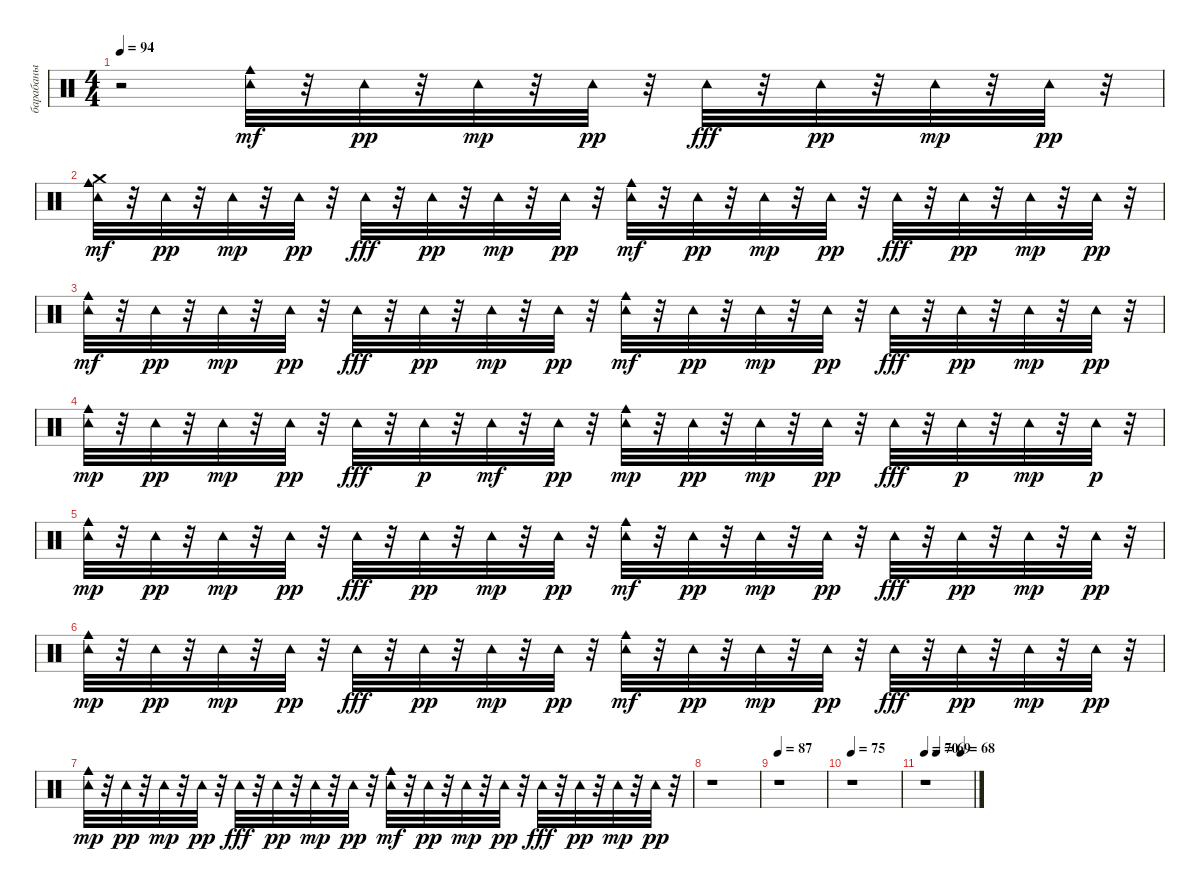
\track ("барабаны" "барабаны") {instrument percussion}
\staff {score}
\articulation defaults
\ts (4 4)
\tempo 94
\clef neutral
\ks c
r.2{dy pp} ("Tambourine (hit)" "Cowbell medium (hit)").32{dy mf} r.32 "Tambourine (hit)".32{dy pp} r.32 "Tambourine (hit)".32{dy mp} r.32 "Tambourine (hit)".32{dy pp} r.32 "Tambourine (hit)".32{dy fff} r.32 "Tambourine (hit)".32{dy pp} r.32 "Tambourine (hit)".32{dy mp} r.32 "Tambourine (hit)".32{dy pp} r.32 |
("Crash medium (hit)" "Tambourine (hit)" "Cowbell medium (hit)").32{dy mf} r.32 "Tambourine (hit)".32{dy pp} r.32 "Tambourine (hit)".32{dy mp} r.32 "Tambourine (hit)".32{dy pp} r.32 "Tambourine (hit)".32{dy fff} r.32 "Tambourine (hit)".32{dy pp} r.32 "Tambourine (hit)".32{dy mp} r.32 "Tambourine (hit)".32{dy pp} r.32 ("Tambourine (hit)" "Cowbell medium (hit)").32{dy mf} r.32 "Tambourine (hit)".32{dy pp} r.32 "Tambourine (hit)".32{dy mp} r.32 "Tambourine (hit)".32{dy pp} r.32 "Tambourine (hit)".32{dy fff} r.32 "Tambourine (hit)".32{dy pp} r.32 "Tambourine (hit)".32{dy mp} r.32 "Tambourine (hit)".32{dy pp} r.32 |
("Tambourine (hit)" "Cowbell medium (hit)").32{dy mf} r.32 "Tambourine (hit)".32{dy pp} r.32 "Tambourine (hit)".32{dy mp} r.32 "Tambourine (hit)".32{dy pp} r.32 "Tambourine (hit)".32{dy fff} r.32 "Tambourine (hit)".32{dy pp} r.32 "Tambourine (hit)".32{dy mp} r.32 "Tambourine (hit)".32{dy pp} r.32 ("Tambourine (hit)" "Cowbell medium (hit)").32{dy mf} r.32 "Tambourine (hit)".32{dy pp} r.32 "Tambourine (hit)".32{dy mp} r.32 "Tambourine (hit)".32{dy pp} r.32 "Tambourine (hit)".32{dy fff} r.32 "Tambourine (hit)".32{dy pp} r.32 "Tambourine (hit)".32{dy mp} r.32 "Tambourine (hit)".32{dy pp} r.32 |
("Cowbell medium (hit)" "Tambourine (hit)").32{dy mp} r.32 "Tambourine (hit)".32{dy pp} r.32 "Tambourine (hit)".32{dy mp} r.32 "Tambourine (hit)".32{dy pp} r.32 "Tambourine (hit)".32{dy fff} r.32 "Tambourine (hit)".32{dy p} r.32 "Tambourine (hit)".32{dy mf} r.32 "Tambourine (hit)".32{dy pp} r.32 ("Tambourine (hit)" "Cowbell medium (hit)").32{dy mp} r.32 "Tambourine (hit)".32{dy pp} r.32 "Tambourine (hit)".32{dy mp} r.32 "Tambourine (hit)".32{dy pp} r.32 "Tambourine (hit)".32{dy fff} r.32 "Tambourine (hit)".32{dy p} r.32 "Tambourine (hit)".32{dy mp} r.32 "Tambourine (hit)".32{dy p} r.32 |
("Cowbell medium (hit)" "Tambourine (hit)").32{dy mp} r.32 "Tambourine (hit)".32{dy pp} r.32 "Tambourine (hit)".32{dy mp} r.32 "Tambourine (hit)".32{dy pp} r.32 "Tambourine (hit)".32{dy fff} r.32 "Tambourine (hit)".32{dy pp} r.32 "Tambourine (hit)".32{dy mp} r.32 "Tambourine (hit)".32{dy pp} r.32 ("Tambourine (hit)" "Cowbell medium (hit)").32{dy mf} r.32 "Tambourine (hit)".32{dy pp} r.32 "Tambourine (hit)".32{dy mp} r.32 "Tambourine (hit)".32{dy pp} r.32 "Tambourine (hit)".32{dy fff} r.32 "Tambourine (hit)".32{dy pp} r.32 "Tambourine (hit)".32{dy mp} r.32 "Tambourine (hit)".32{dy pp} r.32 |
("Cowbell medium (hit)" "Tambourine (hit)").32{dy mp} r.32 "Tambourine (hit)".32{dy pp} r.32 "Tambourine (hit)".32{dy mp} r.32 "Tambourine (hit)".32{dy pp} r.32 "Tambourine (hit)".32{dy fff} r.32 "Tambourine (hit)".32{dy pp} r.32 "Tambourine (hit)".32{dy mp} r.32 "Tambourine (hit)".32{dy pp} r.32 ("Tambourine (hit)" "Cowbell medium (hit)").32{dy mf} r.32 "Tambourine (hit)".32{dy pp} r.32 "Tambourine (hit)".32{dy mp} r.32 "Tambourine (hit)".32{dy pp} r.32 "Tambourine (hit)".32{dy fff} r.32 "Tambourine (hit)".32{dy pp} r.32 "Tambourine (hit)".32{dy mp} r.32 "Tambourine (hit)".32{dy pp} r.32 |
("Cowbell medium (hit)" "Tambourine (hit)").32{dy mp} r.32 "Tambourine (hit)".32{dy pp} r.32 "Tambourine (hit)".32{dy mp} r.32 "Tambourine (hit)".32{dy pp} r.32 "Tambourine (hit)".32{dy fff} r.32 "Tambourine (hit)".32{dy pp} r.32 "Tambourine (hit)".32{dy mp} r.32 "Tambourine (hit)".32{dy pp} r.32 ("Tambourine (hit)" "Cowbell medium (hit)").32{dy mf} r.32 "Tambourine (hit)".32{dy pp} r.32 "Tambourine (hit)".32{dy mp} r.32 "Tambourine (hit)".32{dy pp} r.32 "Tambourine (hit)".32{dy fff} r.32 "Tambourine (hit)".32{dy pp} r.32 "Tambourine (hit)".32{dy mp} r.32 "Tambourine (hit)".32{dy pp} r.32 |
r.1 |
\tempo 87
r.1 |
\tempo 75
r.1 |
\tempo 70
\tempo (69 0.25)
\tempo (68 0.75)
r.1
